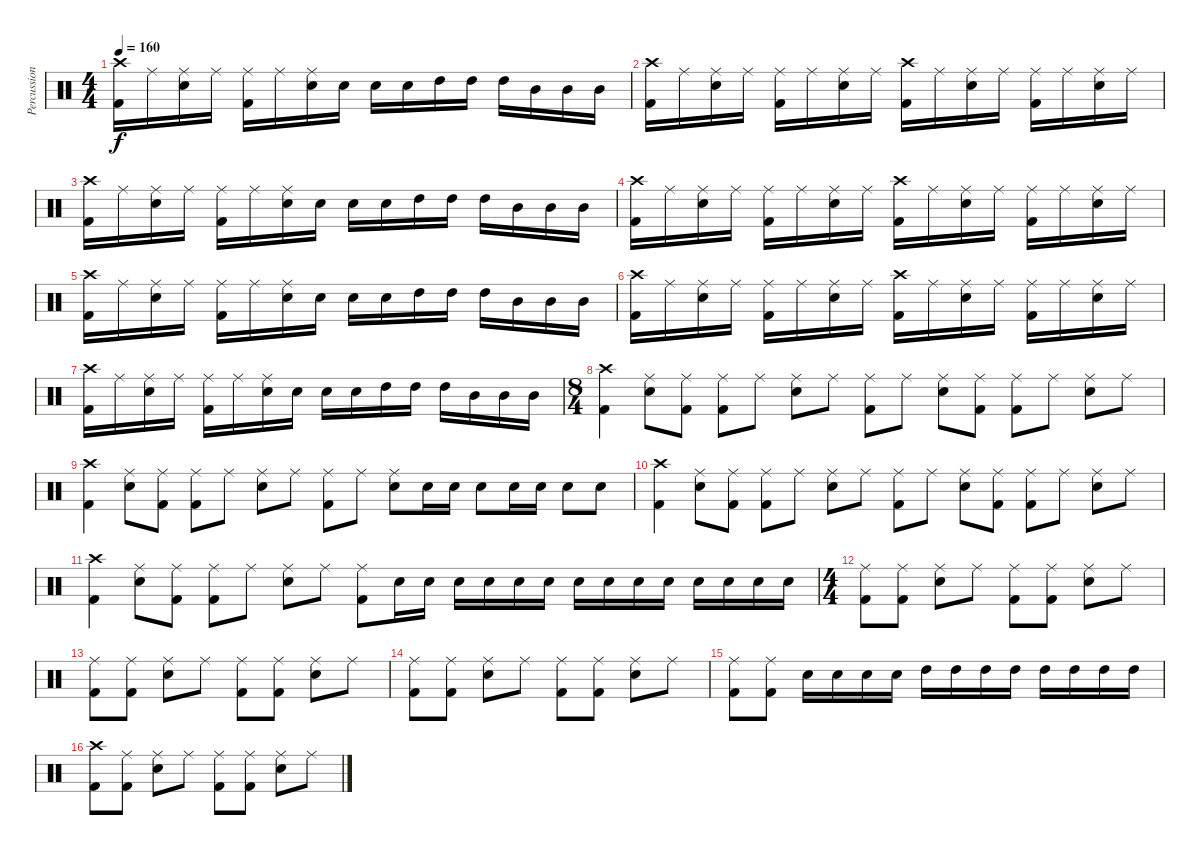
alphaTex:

\track ("Percussion" "Percussion") {instrument percussion}
\staff {score}
\articulation defaults
\ts (4 4)
\tempo 160
\clef neutral
\ks c
("Crash high (hit)" "Kick (hit) 2").16{dy f} "Ride (middle)".16 ("Snare (hit) 2" "Ride (middle)").16 "Ride (middle)".16 ("Kick (hit) 2" "Ride (middle)").16 "Ride (middle)".16 ("Snare (hit) 2" "Ride (middle)").16 "Snare (hit) 2".16 "Snare (hit) 2".16 "Snare (hit) 2".16 "High Tom (hit)".16 "High Tom (hit)".16 "High Tom (hit)".16 "Mid Tom (hit)".16 "Mid Tom (hit)".16 "Mid Tom (hit)".16 |
("Crash high (hit)" "Kick (hit) 2").16 "Ride (middle)".16 ("Snare (hit) 2" "Ride (middle)").16 "Ride (middle)".16 ("Kick (hit) 2" "Ride (middle)").16 "Ride (middle)".16 ("Snare (hit) 2" "Ride (middle)").16 "Ride (middle)".16 ("Crash high (hit)" "Kick (hit) 2").16 "Ride (middle)".16 ("Snare (hit) 2" "Ride (middle)").16 "Ride (middle)".16 ("Kick (hit) 2" "Ride (middle)").16 "Ride (middle)".16 ("Snare (hit) 2" "Ride (middle)").16 "Ride (middle)".16 |
("Crash high (hit)" "Kick (hit) 2").16 "Ride (middle)".16 ("Snare (hit) 2" "Ride (middle)").16 "Ride (middle)".16 ("Kick (hit) 2" "Ride (middle)").16 "Ride (middle)".16 ("Snare (hit) 2" "Ride (middle)").16 "Snare (hit) 2".16 "Snare (hit) 2".16 "Snare (hit) 2".16 "High Tom (hit)".16 "High Tom (hit)".16 "High Tom (hit)".16 "Mid Tom (hit)".16 "Mid Tom (hit)".16 "Mid Tom (hit)".16 |
("Crash high (hit)" "Kick (hit) 2").16 "Ride (middle)".16 ("Snare (hit) 2" "Ride (middle)").16 "Ride (middle)".16 ("Kick (hit) 2" "Ride (middle)").16 "Ride (middle)".16 ("Snare (hit) 2" "Ride (middle)").16 "Ride (middle)".16 ("Crash high (hit)" "Kick (hit) 2").16 "Ride (middle)".16 ("Snare (hit) 2" "Ride (middle)").16 "Ride (middle)".16 ("Kick (hit) 2" "Ride (middle)").16 "Ride (middle)".16 ("Snare (hit) 2" "Ride (middle)").16 "Ride (middle)".16 |
("Crash high (hit)" "Kick (hit) 2").16 "Ride (middle)".16 ("Snare (hit) 2" "Ride (middle)").16 "Ride (middle)".16 ("Kick (hit) 2" "Ride (middle)").16 "Ride (middle)".16 ("Snare (hit) 2" "Ride (middle)").16 "Snare (hit) 2".16 "Snare (hit) 2".16 "Snare (hit) 2".16 "High Tom (hit)".16 "High Tom (hit)".16 "High Tom (hit)".16 "Mid Tom (hit)".16 "Mid Tom (hit)".16 "Mid Tom (hit)".16 |
("Crash high (hit)" "Kick (hit) 2").16 "Ride (middle)".16 ("Snare (hit) 2" "Ride (middle)").16 "Ride (middle)".16 ("Kick (hit) 2" "Ride (middle)").16 "Ride (middle)".16 ("Snare (hit) 2" "Ride (middle)").16 "Ride (middle)".16 ("Crash high (hit)" "Kick (hit) 2").16 "Ride (middle)".16 ("Snare (hit) 2" "Ride (middle)").16 "Ride (middle)".16 ("Kick (hit) 2" "Ride (middle)").16 "Ride (middle)".16 ("Snare (hit) 2" "Ride (middle)").16 "Ride (middle)".16 |
("Crash high (hit)" "Kick (hit) 2").16 "Ride (middle)".16 ("Snare (hit) 2" "Ride (middle)").16 "Ride (middle)".16 ("Kick (hit) 2" "Ride (middle)").16 "Ride (middle)".16 ("Snare (hit) 2" "Ride (middle)").16 "Snare (hit) 2".16 "Snare (hit) 2".16 "Snare (hit) 2".16 "High Tom (hit)".16 "High Tom (hit)".16 "High Tom (hit)".16 "Mid Tom (hit)".16 "Mid Tom (hit)".16 "Mid Tom (hit)".16 |
\ts (8 4)
("Kick (hit) 2" "Crash high (hit)").4 ("Snare (hit) 2" "Ride (middle)").8 ("Kick (hit) 2" "Ride (middle)").8 ("Kick (hit) 2" "Ride (middle)").8 "Ride (middle)".8 ("Snare (hit) 2" "Ride (middle)").8 "Ride (middle)".8 ("Kick (hit) 2" "Ride (middle)").8 "Ride (middle)".8 ("Snare (hit) 2" "Ride (middle)").8 ("Kick (hit) 2" "Ride (middle)").8 ("Kick (hit) 2" "Ride (middle)").8 "Ride (middle)".8 ("Snare (hit) 2" "Ride (middle)").8 "Ride (middle)".8 |
("Kick (hit) 2" "Crash high (hit)").4 ("Snare (hit) 2" "Ride (middle)").8 ("Kick (hit) 2" "Ride (middle)").8 ("Kick (hit) 2" "Ride (middle)").8 "Ride (middle)".8 ("Snare (hit) 2" "Ride (middle)").8 "Ride (middle)".8 ("Kick (hit) 2" "Ride (middle)").8 "Ride (middle)".8 ("Snare (hit) 2" "Ride (middle)").8 "Snare (hit) 2".16 "Snare (hit) 2".16 "Snare (hit) 2".8 "Snare (hit) 2".16 "Snare (hit) 2".16 "Snare (hit) 2".8 "Snare (hit) 2".8 |
("Kick (hit) 2" "Crash high (hit)").4 ("Snare (hit) 2" "Ride (middle)").8 ("Kick (hit) 2" "Ride (middle)").8 ("Kick (hit) 2" "Ride (middle)").8 "Ride (middle)".8 ("Snare (hit) 2" "Ride (middle)").8 "Ride (middle)".8 ("Kick (hit) 2" "Ride (middle)").8 "Ride (middle)".8 ("Snare (hit) 2" "Ride (middle)").8 ("Kick (hit) 2" "Ride (middle)").8 ("Kick (hit) 2" "Ride (middle)").8 "Ride (middle)".8 ("Snare (hit) 2" "Ride (middle)").8 "Ride (middle)".8 |
("Kick (hit) 2" "Crash high (hit)").4 ("Snare (hit) 2" "Ride (middle)").8 ("Kick (hit) 2" "Ride (middle)").8 ("Kick (hit) 2" "Ride (middle)").8 "Ride (middle)".8 ("Snare (hit) 2" "Ride (middle)").8 "Ride (middle)".8 ("Kick (hit) 2" "Ride (middle)").8 "Snare (hit) 2".16 "Snare (hit) 2".16 "Snare (hit) 2".16 "Snare (hit) 2".16 "Snare (hit) 2".16 "Snare (hit) 2".16 "Snare (hit) 2".16 "Snare (hit) 2".16 "Snare (hit) 2".16 "Snare (hit) 2".16 "Snare (hit) 2".16 "Snare (hit) 2".16 "Snare (hit) 2".16 "Snare (hit) 2".16 |
\ts (4 4)
("Kick (hit) 2" "Ride (middle)").8 ("Kick (hit) 2" "Ride (middle)").8 ("Snare (hit) 2" "Ride (middle)").8 "Ride (middle)".8 ("Kick (hit) 2" "Ride (middle)").8 ("Kick (hit) 2" "Ride (middle)").8 ("Snare (hit) 2" "Ride (middle)").8 "Ride (middle)".8 |
("Kick (hit) 2" "Ride (middle)").8 ("Kick (hit) 2" "Ride (middle)").8 ("Snare (hit) 2" "Ride (middle)").8 "Ride (middle)".8 ("Kick (hit) 2" "Ride (middle)").8 ("Kick (hit) 2" "Ride (middle)").8 ("Snare (hit) 2" "Ride (middle)").8 "Ride (middle)".8 |
("Kick (hit) 2" "Ride (middle)").8 ("Kick (hit) 2" "Ride (middle)").8 ("Snare (hit) 2" "Ride (middle)").8 "Ride (middle)".8 ("Kick (hit) 2" "Ride (middle)").8 ("Kick (hit) 2" "Ride (middle)").8 ("Snare (hit) 2" "Ride (middle)").8 "Ride (middle)".8 |
("Kick (hit) 2" "Ride (middle)").8 ("Kick (hit) 2" "Ride (middle)").8 "Snare (hit) 2".16 "Snare (hit) 2".16 "Snare (hit) 2".16 "Snare (hit) 2".16 "High Tom (hit)".16 "High Tom (hit)".16 "High Tom (hit)".16 "High Tom (hit)".16 "High Tom (hit)".16 "High Tom (hit)".16 "High Tom (hit)".16 "High Tom (hit)".16 |
("Kick (hit) 2" "Crash high (hit)").8 ("Kick (hit) 2" "Ride (middle)").8 ("Snare (hit) 2" "Ride (middle)").8 "Ride (middle)".8 ("Kick (hit) 2" "Ride (middle)").8 ("Kick (hit) 2" "Ride (middle)").8 ("Snare (hit) 2" "Ride (middle)").8 "Ride (middle)".8
